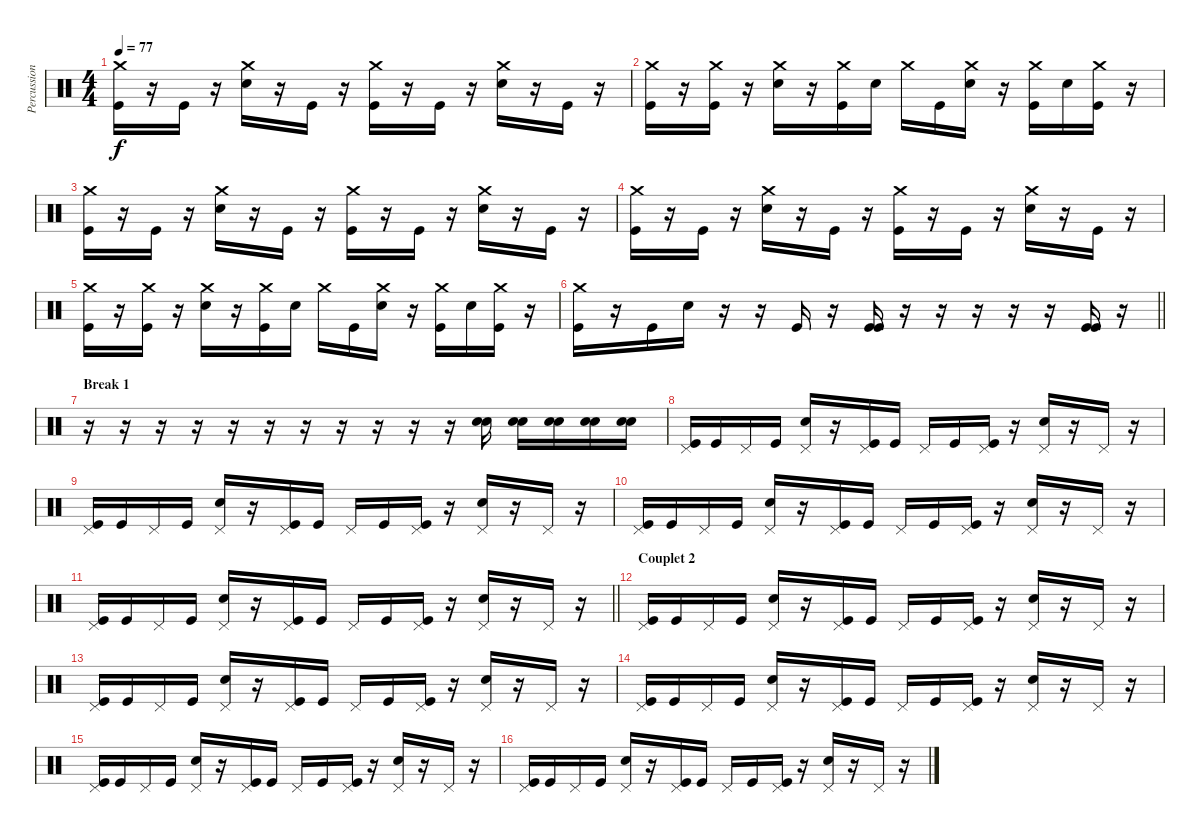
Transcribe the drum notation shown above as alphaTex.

\track ("Percussions" "Percussion") {instrument percussion}
\staff {score}
\articulation defaults
\ts (4 4)
\tempo 77
\clef neutral
\ks c
("Kick (hit)" "Crash medium (hit)").16{dy f} r.16 "Kick (hit)".16 r.16 ("Electric Snare (hit)" "Crash medium (hit)").16 r.16 "Kick (hit)".16 r.16 ("Kick (hit)" "Crash medium (hit)").16 r.16 "Kick (hit)".16 r.16 ("Electric Snare (hit)" "Crash medium (hit)").16 r.16 "Kick (hit)".16 r.16 |
("Kick (hit)" "Crash medium (hit)").16 r.16 ("Kick (hit)" "Crash medium (hit)").16 r.16 ("Electric Snare (hit)" "Crash medium (hit)").16 r.16 ("Kick (hit)" "Crash medium (hit)").16 "Electric Snare (hit)".16 "Crash medium (hit)".16 "Kick (hit)".16 ("Electric Snare (hit)" "Crash medium (hit)").16 r.16 ("Kick (hit)" "Crash medium (hit)").16 "Electric Snare (hit)".16 ("Kick (hit)" "Crash medium (hit)").16 r.16 |
("Kick (hit)" "Crash medium (hit)").16 r.16 "Kick (hit)".16 r.16 ("Electric Snare (hit)" "Crash medium (hit)").16 r.16 "Kick (hit)".16 r.16 ("Kick (hit)" "Crash medium (hit)").16 r.16 "Kick (hit)".16 r.16 ("Electric Snare (hit)" "Crash medium (hit)").16 r.16 "Kick (hit)".16 r.16 |
("Kick (hit)" "Crash medium (hit)").16 r.16 "Kick (hit)".16 r.16 ("Electric Snare (hit)" "Crash medium (hit)").16 r.16 "Kick (hit)".16 r.16 ("Kick (hit)" "Crash medium (hit)").16 r.16 "Kick (hit)".16 r.16 ("Electric Snare (hit)" "Crash medium (hit)").16 r.16 "Kick (hit)".16 r.16 |
("Kick (hit)" "Crash medium (hit)").16 r.16 ("Kick (hit)" "Crash medium (hit)").16 r.16 ("Electric Snare (hit)" "Crash medium (hit)").16 r.16 ("Kick (hit)" "Crash medium (hit)").16 "Electric Snare (hit)".16 "Crash medium (hit)".16 "Kick (hit)".16 ("Electric Snare (hit)" "Crash medium (hit)").16 r.16 ("Kick (hit)" "Crash medium (hit)").16 "Electric Snare (hit)".16 ("Kick (hit)" "Crash medium (hit)").16 r.16 |
\barLineRight lightlight
("Kick (hit)" "Crash medium (hit)").16 r.16 "Kick (hit)".16 "Electric Snare (hit)".16 r.16 r.16 "Kick (hit)".16 r.16 ("Kick (hit)" "Kick (hit)").16 r.16 r.16 r.16 r.16 r.16 ("Kick (hit)" "Kick (hit)").16 r.16 |
\section ("" "Break 1")
r.16 r.16 r.16 r.16 r.16 r.16 r.16 r.16 r.16 r.16 r.16 ("Electric Snare (hit)" "Electric Snare (hit)").16 ("Electric Snare (hit)" "Electric Snare (hit)").16 ("Electric Snare (hit)" "Electric Snare (hit)").16 ("Electric Snare (hit)" "Electric Snare (hit)").16 ("Electric Snare (hit)" "Electric Snare (hit)").16 |
("Kick (hit)" "Pedal Hi-Hat (hit)").16 "Kick (hit)".16 "Pedal Hi-Hat (hit)".16 "Kick (hit)".16 ("Electric Snare (hit)" "Pedal Hi-Hat (hit)").16 r.16 ("Kick (hit)" "Pedal Hi-Hat (hit)").16 "Kick (hit)".16 "Pedal Hi-Hat (hit)".16 "Kick (hit)".16 ("Kick (hit)" "Pedal Hi-Hat (hit)").16 r.16 ("Electric Snare (hit)" "Pedal Hi-Hat (hit)").16 r.16 "Pedal Hi-Hat (hit)".16 r.16 |
("Kick (hit)" "Pedal Hi-Hat (hit)").16 "Kick (hit)".16 "Pedal Hi-Hat (hit)".16 "Kick (hit)".16 ("Electric Snare (hit)" "Pedal Hi-Hat (hit)").16 r.16 ("Kick (hit)" "Pedal Hi-Hat (hit)").16 "Kick (hit)".16 "Pedal Hi-Hat (hit)".16 "Kick (hit)".16 ("Kick (hit)" "Pedal Hi-Hat (hit)").16 r.16 ("Electric Snare (hit)" "Pedal Hi-Hat (hit)").16 r.16 "Pedal Hi-Hat (hit)".16 r.16 |
("Kick (hit)" "Pedal Hi-Hat (hit)").16 "Kick (hit)".16 "Pedal Hi-Hat (hit)".16 "Kick (hit)".16 ("Electric Snare (hit)" "Pedal Hi-Hat (hit)").16 r.16 ("Kick (hit)" "Pedal Hi-Hat (hit)").16 "Kick (hit)".16 "Pedal Hi-Hat (hit)".16 "Kick (hit)".16 ("Kick (hit)" "Pedal Hi-Hat (hit)").16 r.16 ("Electric Snare (hit)" "Pedal Hi-Hat (hit)").16 r.16 "Pedal Hi-Hat (hit)".16 r.16 |
\barLineRight lightlight
("Kick (hit)" "Pedal Hi-Hat (hit)").16 "Kick (hit)".16 "Pedal Hi-Hat (hit)".16 "Kick (hit)".16 ("Electric Snare (hit)" "Pedal Hi-Hat (hit)").16 r.16 ("Kick (hit)" "Pedal Hi-Hat (hit)").16 "Kick (hit)".16 "Pedal Hi-Hat (hit)".16 "Kick (hit)".16 ("Kick (hit)" "Pedal Hi-Hat (hit)").16 r.16 ("Electric Snare (hit)" "Pedal Hi-Hat (hit)").16 r.16 "Pedal Hi-Hat (hit)".16 r.16 |
\section ("" "Couplet 2")
("Kick (hit)" "Pedal Hi-Hat (hit)").16 "Kick (hit)".16 "Pedal Hi-Hat (hit)".16 "Kick (hit)".16 ("Electric Snare (hit)" "Pedal Hi-Hat (hit)").16 r.16 ("Kick (hit)" "Pedal Hi-Hat (hit)").16 "Kick (hit)".16 "Pedal Hi-Hat (hit)".16 "Kick (hit)".16 ("Kick (hit)" "Pedal Hi-Hat (hit)").16 r.16 ("Electric Snare (hit)" "Pedal Hi-Hat (hit)").16 r.16 "Pedal Hi-Hat (hit)".16 r.16 |
("Kick (hit)" "Pedal Hi-Hat (hit)").16 "Kick (hit)".16 "Pedal Hi-Hat (hit)".16 "Kick (hit)".16 ("Electric Snare (hit)" "Pedal Hi-Hat (hit)").16 r.16 ("Kick (hit)" "Pedal Hi-Hat (hit)").16 "Kick (hit)".16 "Pedal Hi-Hat (hit)".16 "Kick (hit)".16 ("Kick (hit)" "Pedal Hi-Hat (hit)").16 r.16 ("Electric Snare (hit)" "Pedal Hi-Hat (hit)").16 r.16 "Pedal Hi-Hat (hit)".16 r.16 |
("Kick (hit)" "Pedal Hi-Hat (hit)").16 "Kick (hit)".16 "Pedal Hi-Hat (hit)".16 "Kick (hit)".16 ("Electric Snare (hit)" "Pedal Hi-Hat (hit)").16 r.16 ("Kick (hit)" "Pedal Hi-Hat (hit)").16 "Kick (hit)".16 "Pedal Hi-Hat (hit)".16 "Kick (hit)".16 ("Kick (hit)" "Pedal Hi-Hat (hit)").16 r.16 ("Electric Snare (hit)" "Pedal Hi-Hat (hit)").16 r.16 "Pedal Hi-Hat (hit)".16 r.16 |
("Kick (hit)" "Pedal Hi-Hat (hit)").16 "Kick (hit)".16 "Pedal Hi-Hat (hit)".16 "Kick (hit)".16 ("Electric Snare (hit)" "Pedal Hi-Hat (hit)").16 r.16 ("Kick (hit)" "Pedal Hi-Hat (hit)").16 "Kick (hit)".16 "Pedal Hi-Hat (hit)".16 "Kick (hit)".16 ("Kick (hit)" "Pedal Hi-Hat (hit)").16 r.16 ("Electric Snare (hit)" "Pedal Hi-Hat (hit)").16 r.16 "Pedal Hi-Hat (hit)".16 r.16 |
("Kick (hit)" "Pedal Hi-Hat (hit)").16 "Kick (hit)".16 "Pedal Hi-Hat (hit)".16 "Kick (hit)".16 ("Electric Snare (hit)" "Pedal Hi-Hat (hit)").16 r.16 ("Kick (hit)" "Pedal Hi-Hat (hit)").16 "Kick (hit)".16 "Pedal Hi-Hat (hit)".16 "Kick (hit)".16 ("Kick (hit)" "Pedal Hi-Hat (hit)").16 r.16 ("Electric Snare (hit)" "Pedal Hi-Hat (hit)").16 r.16 "Pedal Hi-Hat (hit)".16 r.16
